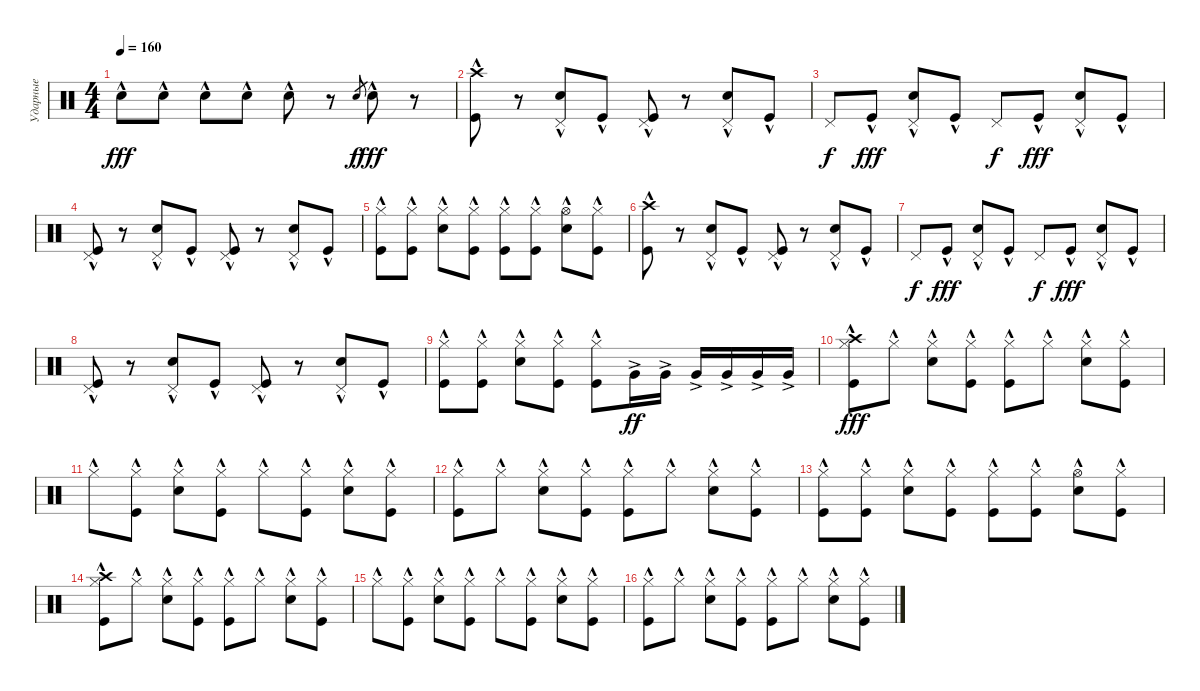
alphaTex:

\track ("Ударные" "Ударные") {instrument percussion}
\staff {score}
\articulation defaults
\ts (4 4)
\tempo 160
\clef neutral
\ks c "Snare (hit) 2"{hac}.8{dy fff} "Snare (hit) 2"{hac}.8 "Snare (hit) 2"{hac}.8 "Snare (hit) 2"{hac}.8 "Snare (hit) 2"{hac}.8
r.8 "Snare (hit) 2".8{gr dy f} "Snare (hit) 2"{hac}.8{dy fff} r.8 |
("Crash high (hit)"{hac} "Kick (hit)"{hac}).8 r.8 ("Pedal Hi-Hat (hit)" "Snare (hit) 2"{hac}).8 "Kick (hit)"{hac}.8 ("Pedal Hi-Hat (hit)" "Kick (hit)"{hac}).8 r.8 ("Pedal Hi-Hat (hit)" "Snare (hit) 2"{hac}).8 "Kick (hit)"{hac}.8 |
"Pedal Hi-Hat (hit)".8{dy f} "Kick (hit)"{hac}.8{dy fff} ("Pedal Hi-Hat (hit)" "Snare (hit) 2"{hac}).8 "Kick (hit)"{hac}.8 "Pedal Hi-Hat (hit)".8{dy f} "Kick (hit)"{hac}.8{dy fff} ("Pedal Hi-Hat (hit)" "Snare (hit) 2"{hac}).8 "Kick (hit)"{hac}.8 |
("Pedal Hi-Hat (hit)" "Kick (hit)"{hac}).8 r.8 ("Pedal Hi-Hat (hit)" "Snare (hit) 2"{hac}).8 "Kick (hit)"{hac}.8 ("Pedal Hi-Hat (hit)" "Kick (hit)"{hac}).8 r.8 ("Pedal Hi-Hat (hit)" "Snare (hit) 2"{hac}).8 "Kick (hit)"{hac}.8 |
("Hi-Hat (closed)"{hac} "Kick (hit)"{hac}).8 ("Hi-Hat (closed)"{hac} "Kick (hit)"{hac}).8 ("Hi-Hat (closed)"{hac} "Snare (hit) 2"{hac}).8 ("Hi-Hat (closed)"{hac} "Kick (hit)"{hac}).8 ("Hi-Hat (closed)"{hac} "Kick (hit)"{hac}).8 ("Hi-Hat (closed)"{hac} "Kick (hit)"{hac}).8 ("Hi-Hat (open)"{hac} "Snare (hit) 2"{hac}).8 ("Hi-Hat (closed)"{hac} "Kick (hit)"{hac}).8 |
("Crash high (hit)"{hac} "Kick (hit)"{hac}).8 r.8 ("Pedal Hi-Hat (hit)" "Snare (hit) 2"{hac}).8 "Kick (hit)"{hac}.8 ("Pedal Hi-Hat (hit)" "Kick (hit)"{hac}).8 r.8 ("Pedal Hi-Hat (hit)" "Snare (hit) 2"{hac}).8 "Kick (hit)"{hac}.8 |
"Pedal Hi-Hat (hit)".8{dy f} "Kick (hit)"{hac}.8{dy fff} ("Pedal Hi-Hat (hit)" "Snare (hit) 2"{hac}).8 "Kick (hit)"{hac}.8 "Pedal Hi-Hat (hit)".8{dy f} "Kick (hit)"{hac}.8{dy fff} ("Pedal Hi-Hat (hit)" "Snare (hit) 2"{hac}).8 "Kick (hit)"{hac}.8 |
("Pedal Hi-Hat (hit)" "Kick (hit)"{hac}).8 r.8 ("Pedal Hi-Hat (hit)" "Snare (hit) 2"{hac}).8 "Kick (hit)"{hac}.8 ("Pedal Hi-Hat (hit)" "Kick (hit)"{hac}).8 r.8 ("Pedal Hi-Hat (hit)" "Snare (hit) 2"{hac}).8 "Kick (hit)"{hac}.8 |
("Hi-Hat (closed)"{hac} "Kick (hit)"{hac}).8 ("Hi-Hat (closed)"{hac} "Kick (hit)"{hac}).8 ("Hi-Hat (closed)"{hac} "Snare (hit) 2"{hac}).8 ("Hi-Hat (closed)"{hac} "Kick (hit)"{hac}).8 ("Hi-Hat (closed)"{hac} "Kick (hit)"{hac}).8 "Very Low Tom (hit)"{ac}.16{dy ff} "Very Low Tom (hit)"{ac}.16 "Very Low Tom (hit)"{ac}.16 "Very Low Tom (hit)"{ac}.16 "Very Low Tom (hit)"{ac}.16 "Very Low Tom (hit)"{ac}.16 |
("Hi-Hat (closed)"{hac} "Crash high (hit)"{hac} "Kick (hit)"{hac}).8{dy fff} "Hi-Hat (closed)"{hac}.8 ("Hi-Hat (closed)"{hac} "Snare (hit) 2"{hac}).8 ("Hi-Hat (closed)"{hac} "Kick (hit)"{hac}).8 ("Hi-Hat (closed)"{hac} "Kick (hit)"{hac}).8 "Hi-Hat (closed)"{hac}.8 ("Hi-Hat (closed)"{hac} "Snare (hit) 2"{hac}).8 ("Hi-Hat (closed)"{hac} "Kick (hit)"{hac}).8 |
"Hi-Hat (closed)"{hac}.8 ("Hi-Hat (closed)"{hac} "Kick (hit)"{hac}).8 ("Hi-Hat (closed)"{hac} "Snare (hit) 2"{hac}).8 ("Hi-Hat (closed)"{hac} "Kick (hit)"{hac}).8 "Hi-Hat (closed)"{hac}.8 ("Hi-Hat (closed)"{hac} "Kick (hit)"{hac}).8 ("Hi-Hat (closed)"{hac} "Snare (hit) 2"{hac}).8 ("Hi-Hat (closed)"{hac} "Kick (hit)"{hac}).8 |
("Hi-Hat (closed)"{hac} "Kick (hit)"{hac}).8 "Hi-Hat (closed)"{hac}.8 ("Hi-Hat (closed)"{hac} "Snare (hit) 2"{hac}).8 ("Hi-Hat (closed)"{hac} "Kick (hit)"{hac}).8 ("Hi-Hat (closed)"{hac} "Kick (hit)"{hac}).8 "Hi-Hat (closed)"{hac}.8 ("Hi-Hat (closed)"{hac} "Snare (hit) 2"{hac}).8 ("Hi-Hat (closed)"{hac} "Kick (hit)"{hac}).8 |
("Hi-Hat (closed)"{hac} "Kick (hit)"{hac}).8 ("Hi-Hat (closed)"{hac} "Kick (hit)"{hac}).8 ("Hi-Hat (closed)"{hac} "Snare (hit) 2"{hac}).8 ("Hi-Hat (closed)"{hac} "Kick (hit)"{hac}).8 ("Hi-Hat (closed)"{hac} "Kick (hit)"{hac}).8 ("Hi-Hat (closed)"{hac} "Kick (hit)"{hac}).8 ("Hi-Hat (open)"{hac} "Snare (hit) 2"{hac}).8 ("Hi-Hat (closed)"{hac} "Kick (hit)"{hac}).8 |
("Hi-Hat (closed)"{hac} "Crash high (hit)"{hac} "Kick (hit)"{hac}).8 "Hi-Hat (closed)"{hac}.8 ("Hi-Hat (closed)"{hac} "Snare (hit) 2"{hac}).8 ("Hi-Hat (closed)"{hac} "Kick (hit)"{hac}).8 ("Hi-Hat (closed)"{hac} "Kick (hit)"{hac}).8 "Hi-Hat (closed)"{hac}.8 ("Hi-Hat (closed)"{hac} "Snare (hit) 2"{hac}).8 ("Hi-Hat (closed)"{hac} "Kick (hit)"{hac}).8 |
"Hi-Hat (closed)"{hac}.8 ("Hi-Hat (closed)"{hac} "Kick (hit)"{hac}).8 ("Hi-Hat (closed)"{hac} "Snare (hit) 2"{hac}).8 ("Hi-Hat (closed)"{hac} "Kick (hit)"{hac}).8 "Hi-Hat (closed)"{hac}.8 ("Hi-Hat (closed)"{hac} "Kick (hit)"{hac}).8 ("Hi-Hat (closed)"{hac} "Snare (hit) 2"{hac}).8 ("Hi-Hat (closed)"{hac} "Kick (hit)"{hac}).8 |
("Hi-Hat (closed)"{hac} "Kick (hit)"{hac}).8 "Hi-Hat (closed)"{hac}.8 ("Hi-Hat (closed)"{hac} "Snare (hit) 2"{hac}).8 ("Hi-Hat (closed)"{hac} "Kick (hit)"{hac}).8 ("Hi-Hat (closed)"{hac} "Kick (hit)"{hac}).8 "Hi-Hat (closed)"{hac}.8 ("Hi-Hat (closed)"{hac} "Snare (hit) 2"{hac}).8 ("Hi-Hat (closed)"{hac} "Kick (hit)"{hac}).8
